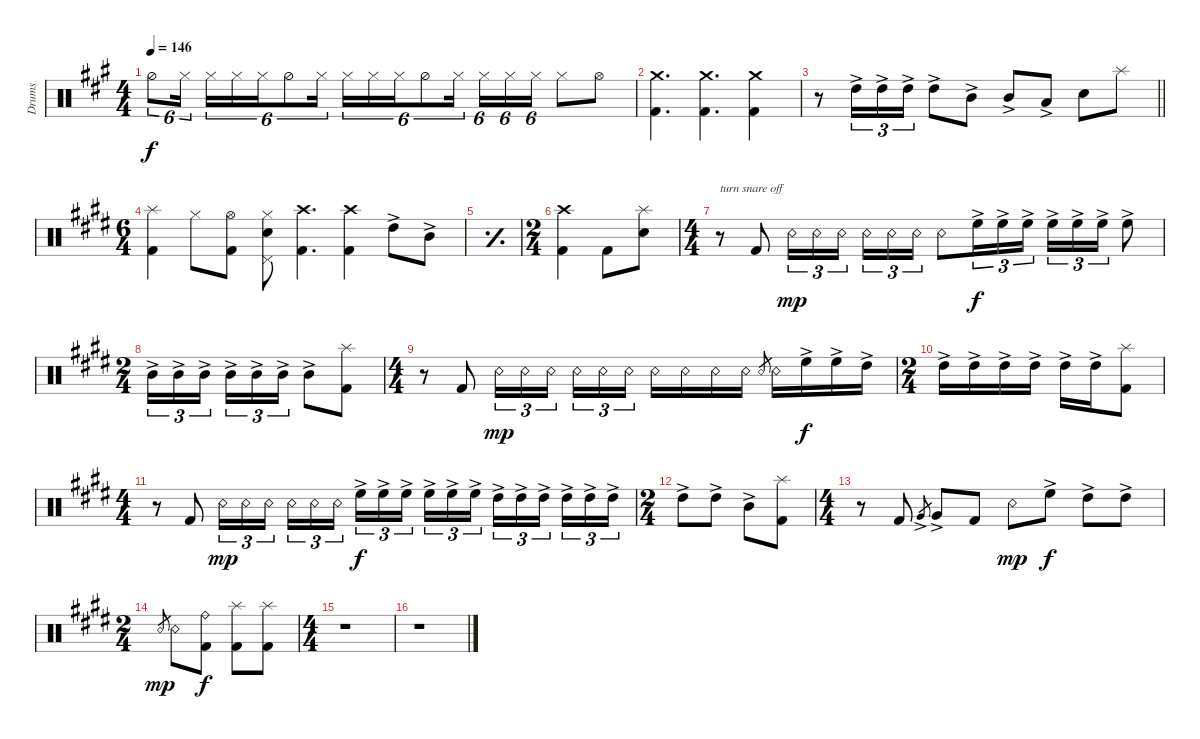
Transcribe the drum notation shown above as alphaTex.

\defaultSystemsLayout 4
\bracketExtendMode groupsimilarinstruments
\otherSystemsTrackNameOrientation horizontal
\track ("Drumkit" "Drums") {multiBarRest instrument percussion}
\staff {score}
\articulation defaults
\ts (4 4)
\tempo 146
\clef neutral
\ks a "Hi-Hat (half)"{acc forcenatural}.8{tu (6 4) dy f} "Hi-Hat (closed)"{acc forcenatural}.16{tu (6 4)} "Hi-Hat (closed)"{acc forcenatural}.16{tu (6 4)} "Hi-Hat (closed)"{acc forcenatural}.16{tu (6 4)} "Hi-Hat (closed)"{acc forcenatural}.16{tu (6 4)} "Hi-Hat (half)"{acc forcenatural}.8{tu (6 4)} "Hi-Hat (closed)"{acc forcenatural}.16{tu (6 4)} "Hi-Hat (closed)"{acc forcenatural}.16{tu (6 4)} "Hi-Hat (closed)"{acc forcenatural}.16{tu (6 4)} "Hi-Hat (closed)"{acc forcenatural}.16{tu (6 4)} "Hi-Hat (half)"{acc forcenatural}.8{tu (6 4)} "Hi-Hat (closed)"{acc forcenatural}.16{tu (6 4)} "Hi-Hat (closed)"{acc forcenatural}.16{tu (6 4)} "Hi-Hat (closed)"{acc forcenatural}.16{tu (6 4)} "Hi-Hat (closed)"{acc forcenatural}.16{tu (6 4)} "Hi-Hat (closed)"{acc forcenatural}.8 "Hi-Hat (open)"{acc forcenatural}.8
|
("Crash medium (hit)"{acc forcenatural} "Kick (hit) 2"{acc forcenatural}).4{d} ("Crash medium (hit)"{acc forcenatural} "Kick (hit) 2"{acc forcenatural}).4{d} ("Crash medium (hit)"{acc forcenatural} "Kick (hit) 2"{acc forcenatural}).4 |
\barLineRight lightlight
r.8 "High Tom (hit)"{ac acc forcenatural}.16{tu (3 2)} "High Tom (hit)"{ac acc forcenatural}.16{tu (3 2)} "High Tom (hit)"{ac acc forcenatural}.16{tu (3 2)} "High Tom (hit)"{ac acc forcenatural}.8 "Mid Tom (hit)"{ac acc forcenatural}.8 "Mid Tom (hit)"{ac acc forcenatural}.8 "Low Tom (hit)"{ac acc forcenatural}.8 "Snare (hit) 2"{acc forcenatural}.8 "Splash (hit)"{acc forcenatural}.8 |
\ts (6 4)
\beaming (8 2 2 2 2 2 2)
\ks e
("Kick (hit) 2"{acc forcenatural} "Splash (hit)"{acc forcenatural}).4 "Hi-Hat (closed)"{acc forcenatural}.8 ("Hi-Hat (open)"{acc forcenatural} "Kick (hit) 2"{acc forcenatural}).8 ("Snare (hit) 2"{acc forcenatural} "Pedal Hi-Hat (hit)"{acc forcenatural} "Hi-Hat (closed)"{acc forcenatural}).8 ("Crash high (hit)"{acc forcenatural} "Kick (hit) 2"{acc forcenatural}).4{d} ("Crash high (hit)"{acc forcenatural} "Kick (hit) 2"{acc forcenatural}).4 "High Tom (hit)"{ac acc forcenatural}.8 "Mid Tom (hit)"{ac acc forcenatural}.8 |
\simile simple
|
\ts (2 4)
\beaming (8 2 2 2 2 2 2)
\simile none
("Crash high (hit)"{acc forcenatural} "Kick (hit) 2"{acc forcenatural}).4 "Kick (hit) 2"{acc forcenatural}.8 ("Snare (hit) 2"{acc forcenatural} "Splash (hit)"{acc forcenatural}).8 |
\ts (4 4)
\beaming (8 2 2 2 2 2 2)
r.8{txt "turn snare off"} "Kick (hit) 2"{acc forcenatural}.8 "Snare (rim shot)"{acc forcenatural}.16{tu (3 2) dy mp} "Snare (rim shot)"{acc forcenatural}.16{tu (3 2)} "Snare (rim shot)"{acc forcenatural}.16{tu (3 2) beam splitsecondary} "Snare (rim shot)"{acc forcenatural}.16{tu (3 2)} "Snare (rim shot)"{acc forcenatural}.16{tu (3 2)} "Snare (rim shot)"{acc forcenatural}.16{tu (3 2)} "Snare (rim shot)"{acc forcenatural}.8{beam merge} "High Floor Tom (hit)"{ac acc forcenatural}.16{tu (3 2) dy f} "High Floor Tom (hit)"{ac acc forcenatural}.16{tu (3 2)} "High Floor Tom (hit)"{ac acc forcenatural}.16{tu (3 2)} "High Floor Tom (hit)"{ac acc forcenatural}.16{tu (3 2)} "High Floor Tom (hit)"{ac acc forcenatural}.16{tu (3 2)} "High Floor Tom (hit)"{ac acc forcenatural}.16{tu (3 2) beam splitsecondary} "High Floor Tom (hit)"{ac acc forcenatural}.8 |
\ts (2 4)
\beaming (8 2 2 2 2 2 2)
"Mid Tom (hit)"{ac acc forcenatural}.16{tu (3 2)} "Mid Tom (hit)"{ac acc forcenatural}.16{tu (3 2)} "Mid Tom (hit)"{ac acc forcenatural}.16{tu (3 2) beam splitsecondary} "Mid Tom (hit)"{ac acc forcenatural}.16{tu (3 2)} "Mid Tom (hit)"{ac acc forcenatural}.16{tu (3 2)} "Mid Tom (hit)"{ac acc forcenatural}.16{tu (3 2)} "Mid Tom (hit)"{ac acc forcenatural}.8 ("Splash (hit)"{acc forcenatural} "Kick (hit) 2"{acc forcenatural}).8 |
\ts (4 4)
\beaming (8 2 2 2 2 2 2)
r.8 "Kick (hit) 2"{acc forcenatural}.8 "Snare (rim shot)"{acc forcenatural}.16{tu (3 2) dy mp} "Snare (rim shot)"{acc forcenatural}.16{tu (3 2)} "Snare (rim shot)"{acc forcenatural}.16{tu (3 2) beam splitsecondary} "Snare (rim shot)"{acc forcenatural}.16{tu (3 2)} "Snare (rim shot)"{acc forcenatural}.16{tu (3 2)} "Snare (rim shot)"{acc forcenatural}.16{tu (3 2)} "Snare (rim shot)"{acc forcenatural}.16 "Snare (rim shot)"{acc forcenatural}.16 "Snare (rim shot)"{acc forcenatural}.16 "Snare (rim shot)"{acc forcenatural}.16 "Snare (rim shot)"{acc forcenatural}.8{gr} "Snare (rim shot)"{acc forcenatural}.16 "High Floor Tom (hit)"{ac acc forcenatural}.16{dy f} "High Floor Tom (hit)"{ac acc forcenatural}.16 "High Tom (hit)"{ac acc forcenatural}.16 |
\ts (2 4)
\beaming (8 2 2 2 2 2 2)
"High Tom (hit)"{ac acc forcenatural}.16 "High Tom (hit)"{ac acc forcenatural}.16 "High Tom (hit)"{ac acc forcenatural}.16 "High Tom (hit)"{ac acc forcenatural}.16 "High Tom (hit)"{ac acc forcenatural}.16 "High Tom (hit)"{ac acc forcenatural}.16 ("Splash (hit)"{acc forcenatural} "Kick (hit) 2"{acc forcenatural}).8 |
\ts (4 4)
\beaming (8 2 2 2 2 2 2)
r.8 "Kick (hit) 2"{acc forcenatural}.8 "Snare (rim shot)"{acc forcenatural}.16{tu (3 2) dy mp} "Snare (rim shot)"{acc forcenatural}.16{tu (3 2)} "Snare (rim shot)"{acc forcenatural}.16{tu (3 2) beam splitsecondary} "Snare (rim shot)"{acc forcenatural}.16{tu (3 2)} "Snare (rim shot)"{acc forcenatural}.16{tu (3 2)} "Snare (rim shot)"{acc forcenatural}.16{tu (3 2)} "High Floor Tom (hit)"{ac acc forcenatural}.16{tu (3 2) dy f} "High Floor Tom (hit)"{ac acc forcenatural}.16{tu (3 2)} "High Floor Tom (hit)"{ac acc forcenatural}.16{tu (3 2) beam splitsecondary} "High Floor Tom (hit)"{ac acc forcenatural}.16{tu (3 2)} "High Floor Tom (hit)"{ac acc forcenatural}.16{tu (3 2)} "High Floor Tom (hit)"{ac acc forcenatural}.16{tu (3 2)} "High Tom (hit)"{ac acc forcenatural}.16{tu (3 2)} "High Tom (hit)"{ac acc forcenatural}.16{tu (3 2)} "High Tom (hit)"{ac acc forcenatural}.16{tu (3 2) beam splitsecondary} "High Tom (hit)"{ac acc forcenatural}.16{tu (3 2)} "High Tom (hit)"{ac acc forcenatural}.16{tu (3 2)} "High Tom (hit)"{ac acc forcenatural}.16{tu (3 2)} |
\ts (2 4)
\beaming (8 2 2 2 2 2 2)
"High Tom (hit)"{ac acc forcenatural}.8 "High Tom (hit)"{ac acc forcenatural}.8 "Mid Tom (hit)"{ac acc forcenatural}.8 ("Splash (hit)"{acc forcenatural} "Kick (hit) 2"{acc forcenatural}).8 |
\ts (4 4)
\beaming (8 2 2 2 2 2 2)
r.8 "Kick (hit) 2"{acc forcenatural}.8 "Very Low Tom (hit)"{ac acc forcenatural}.8{gr} "Very Low Tom (hit)"{ac acc forcenatural}.8 "Kick (hit) 2"{acc forcenatural}.8 "Snare (rim shot)"{acc forcenatural}.8{dy mp} "High Floor Tom (hit)"{ac acc forcenatural}.8{dy f} "High Tom (hit)"{ac acc forcenatural}.8 "High Tom (hit)"{ac acc forcenatural}.8 |
\ts (2 4)
\beaming (8 2 2 2 2 2 2)
"Snare (rim shot)"{acc forcenatural}.8{gr dy mp} "Snare (rim shot)"{acc forcenatural}.8 ("Kick (hit) 2"{acc forcenatural} "Ride (bell)"{acc forcenatural}).8{dy f} ("Splash (hit)"{acc forcenatural} "Kick (hit) 2"{acc forcenatural}).8 ("Splash (hit)"{acc forcenatural} "Kick (hit) 2"{acc forcenatural}).8 |
\ts (4 4)
\beaming (8 2 2 2 2 2 2)
r.1 |
r.1
